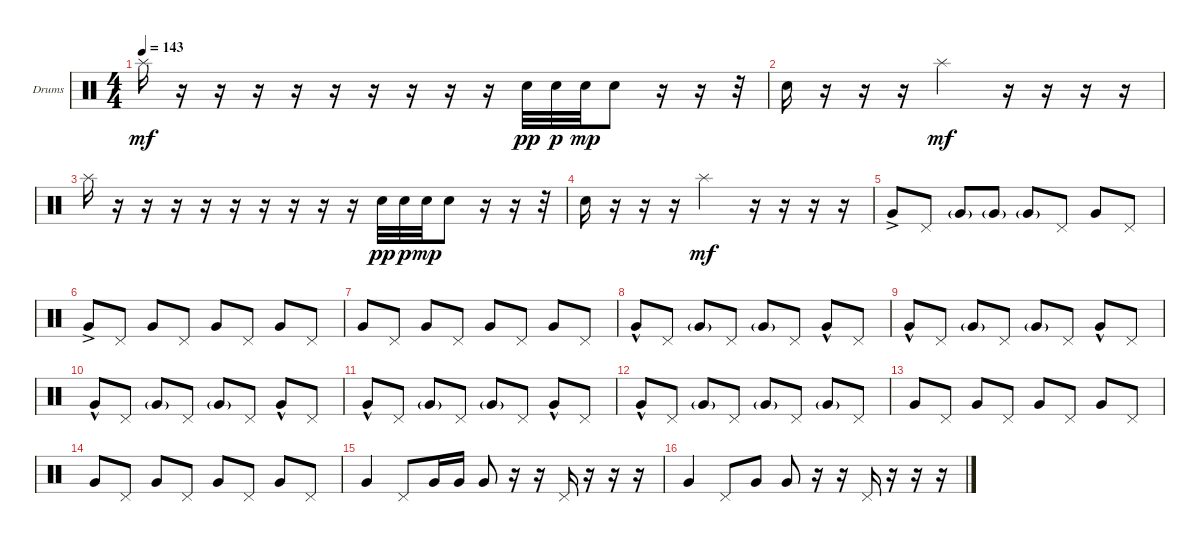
\defaultSystemsLayout 4
\bracketExtendMode groupsimilarinstruments
\firstSystemTrackNameOrientation horizontal
\otherSystemsTrackNameOrientation horizontal
\track ("Drumkit" "Drums") {instrument percussion}
\staff {score}
\articulation defaults
\ts (4 4)
\tempo 143
\clef neutral
\ks c "Splash (hit)".16{dy mf}
r.16 r.16 r.16 r.16 r.16 r.16 r.16 r.16 r.16 "Snare (hit) 2".32{dy pp} "Snare (hit) 2".32{dy p} "Snare (hit) 2".32{dy mp} "Snare (hit) 2".8 r.16 r.16 r.32 |
"Snare (hit) 2".16 r.16 r.16 r.16 "Splash (hit)".2{dy mf} r.16 r.16 r.16 r.16 |
"Splash (hit)".16 r.16 r.16 r.16 r.16 r.16 r.16 r.16 r.16 r.16 "Snare (hit) 2".32{dy pp} "Snare (hit) 2".32{dy p} "Snare (hit) 2".32{dy mp} "Snare (hit) 2".8 r.16 r.16 r.32 |
"Snare (hit) 2".16 r.16 r.16 r.16 "Splash (hit)".2{dy mf} r.16 r.16 r.16 r.16 |
"Very Low Tom (hit)"{ac}.8 "Pedal Hi-Hat (hit)".8 "Very Low Tom (hit)"{g}.8 "Very Low Tom (hit)"{g}.8 "Very Low Tom (hit)"{g}.8 "Pedal Hi-Hat (hit)".8 "Very Low Tom (hit)".8 "Pedal Hi-Hat (hit)".8 |
"Very Low Tom (hit)"{ac}.8 "Pedal Hi-Hat (hit)".8 "Very Low Tom (hit)".8 "Pedal Hi-Hat (hit)".8 "Very Low Tom (hit)".8 "Pedal Hi-Hat (hit)".8 "Very Low Tom (hit)".8 "Pedal Hi-Hat (hit)".8 |
"Very Low Tom (hit)".8 "Pedal Hi-Hat (hit)".8 "Very Low Tom (hit)".8 "Pedal Hi-Hat (hit)".8 "Very Low Tom (hit)".8 "Pedal Hi-Hat (hit)".8 "Very Low Tom (hit)".8 "Pedal Hi-Hat (hit)".8 |
"Very Low Tom (hit)"{hac}.8 "Pedal Hi-Hat (hit)".8 "Very Low Tom (hit)"{g}.8 "Pedal Hi-Hat (hit)".8 "Very Low Tom (hit)"{g}.8 "Pedal Hi-Hat (hit)".8 "Very Low Tom (hit)"{hac}.8 "Pedal Hi-Hat (hit)".8 |
"Very Low Tom (hit)"{hac}.8 "Pedal Hi-Hat (hit)".8 "Very Low Tom (hit)"{g}.8 "Pedal Hi-Hat (hit)".8 "Very Low Tom (hit)"{g}.8 "Pedal Hi-Hat (hit)".8 "Very Low Tom (hit)"{hac}.8 "Pedal Hi-Hat (hit)".8 |
"Very Low Tom (hit)"{hac}.8 "Pedal Hi-Hat (hit)".8 "Very Low Tom (hit)"{g}.8 "Pedal Hi-Hat (hit)".8 "Very Low Tom (hit)"{g}.8 "Pedal Hi-Hat (hit)".8 "Very Low Tom (hit)"{hac}.8 "Pedal Hi-Hat (hit)".8 |
"Very Low Tom (hit)"{hac}.8 "Pedal Hi-Hat (hit)".8 "Very Low Tom (hit)"{g}.8 "Pedal Hi-Hat (hit)".8 "Very Low Tom (hit)"{g}.8 "Pedal Hi-Hat (hit)".8 "Very Low Tom (hit)"{hac}.8 "Pedal Hi-Hat (hit)".8 |
"Very Low Tom (hit)"{hac}.8 "Pedal Hi-Hat (hit)".8 "Very Low Tom (hit)"{g}.8 "Pedal Hi-Hat (hit)".8 "Very Low Tom (hit)"{g}.8 "Pedal Hi-Hat (hit)".8 "Very Low Tom (hit)"{g}.8 "Pedal Hi-Hat (hit)".8 |
"Very Low Tom (hit)".8 "Pedal Hi-Hat (hit)".8 "Very Low Tom (hit)".8 "Pedal Hi-Hat (hit)".8 "Very Low Tom (hit)".8 "Pedal Hi-Hat (hit)".8 "Very Low Tom (hit)".8 "Pedal Hi-Hat (hit)".8 |
"Very Low Tom (hit)".8 "Pedal Hi-Hat (hit)".8 "Very Low Tom (hit)".8 "Pedal Hi-Hat (hit)".8 "Very Low Tom (hit)".8 "Pedal Hi-Hat (hit)".8 "Very Low Tom (hit)".8 "Pedal Hi-Hat (hit)".8 |
"Very Low Tom (hit)".4 "Pedal Hi-Hat (hit)".8 "Very Low Tom (hit)".16 "Very Low Tom (hit)".16 "Very Low Tom (hit)".8 r.16 r.16 "Pedal Hi-Hat (hit)".16 r.16 r.16 r.16 |
"Very Low Tom (hit)".4 "Pedal Hi-Hat (hit)".8 "Very Low Tom (hit)".8 "Very Low Tom (hit)".8 r.16 r.16 "Pedal Hi-Hat (hit)".16 r.16 r.16 r.16
